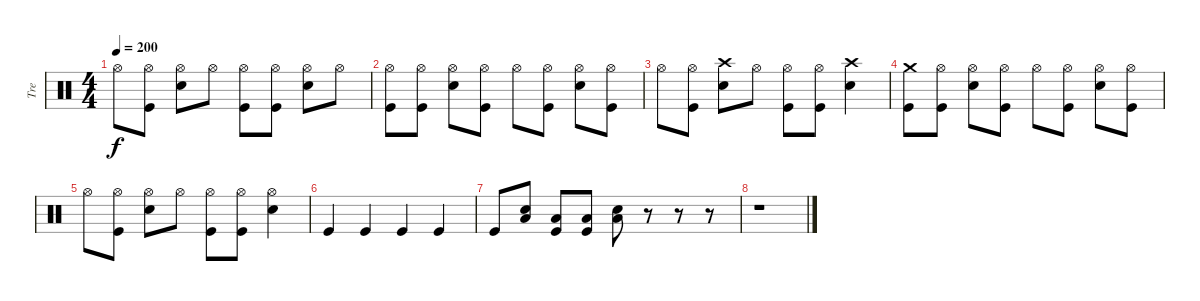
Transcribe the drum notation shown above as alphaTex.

\track ("Tre" "Tre") {instrument percussion}
\staff {score}
\articulation defaults
\ts (4 4)
\tempo 200
\clef neutral
\ks c "Hi-Hat (open)".8{dy f}
("Hi-Hat (open)" "Kick (hit)").8 ("Hi-Hat (open)" "Snare (hit) 2").8 "Hi-Hat (open)".8 ("Hi-Hat (open)" "Kick (hit)").8 ("Hi-Hat (open)" "Kick (hit)").8 ("Hi-Hat (open)" "Snare (hit) 2").8 "Hi-Hat (open)".8 |
("Hi-Hat (open)" "Kick (hit)").8 ("Hi-Hat (open)" "Kick (hit)").8 ("Hi-Hat (open)" "Snare (hit) 2").8 ("Hi-Hat (open)" "Kick (hit)").8 "Hi-Hat (open)".8 ("Hi-Hat (open)" "Kick (hit)").8 ("Hi-Hat (open)" "Snare (hit) 2").8 ("Hi-Hat (open)" "Kick (hit)").8 |
"Hi-Hat (open)".8 ("Hi-Hat (open)" "Kick (hit)").8 ("Crash high (hit)" "Snare (hit) 2").8 "Hi-Hat (open)".8 ("Hi-Hat (open)" "Kick (hit)").8 ("Hi-Hat (open)" "Kick (hit)").8 ("Crash high (hit)" "Snare (hit) 2").4 |
("Crash medium (hit)" "Kick (hit)").8 ("Hi-Hat (open)" "Kick (hit)").8 ("Hi-Hat (open)" "Snare (hit) 2").8 ("Hi-Hat (open)" "Kick (hit)").8 "Hi-Hat (open)".8 ("Hi-Hat (open)" "Kick (hit)").8 ("Hi-Hat (open)" "Snare (hit) 2").8 ("Hi-Hat (open)" "Kick (hit)").8 |
"Hi-Hat (open)".8 ("Hi-Hat (open)" "Kick (hit)").8 ("Hi-Hat (open)" "Snare (hit) 2").8 "Hi-Hat (open)".8 ("Hi-Hat (open)" "Kick (hit)").8 ("Hi-Hat (open)" "Kick (hit)").8 ("Hi-Hat (open)" "Snare (hit) 2").4 |
"Kick (hit)".4 "Kick (hit)".4 "Kick (hit)".4 "Kick (hit)".4 |
"Kick (hit)".8 ("Snare (hit) 2" "Low Floor Tom (hit)").8 ("Low Floor Tom (hit)" "Kick (hit)").8 ("Low Floor Tom (hit)" "Kick (hit)").8 ("Low Floor Tom (hit)" "Snare (hit) 2").8 r.8 r.8 r.8 |
r.1
